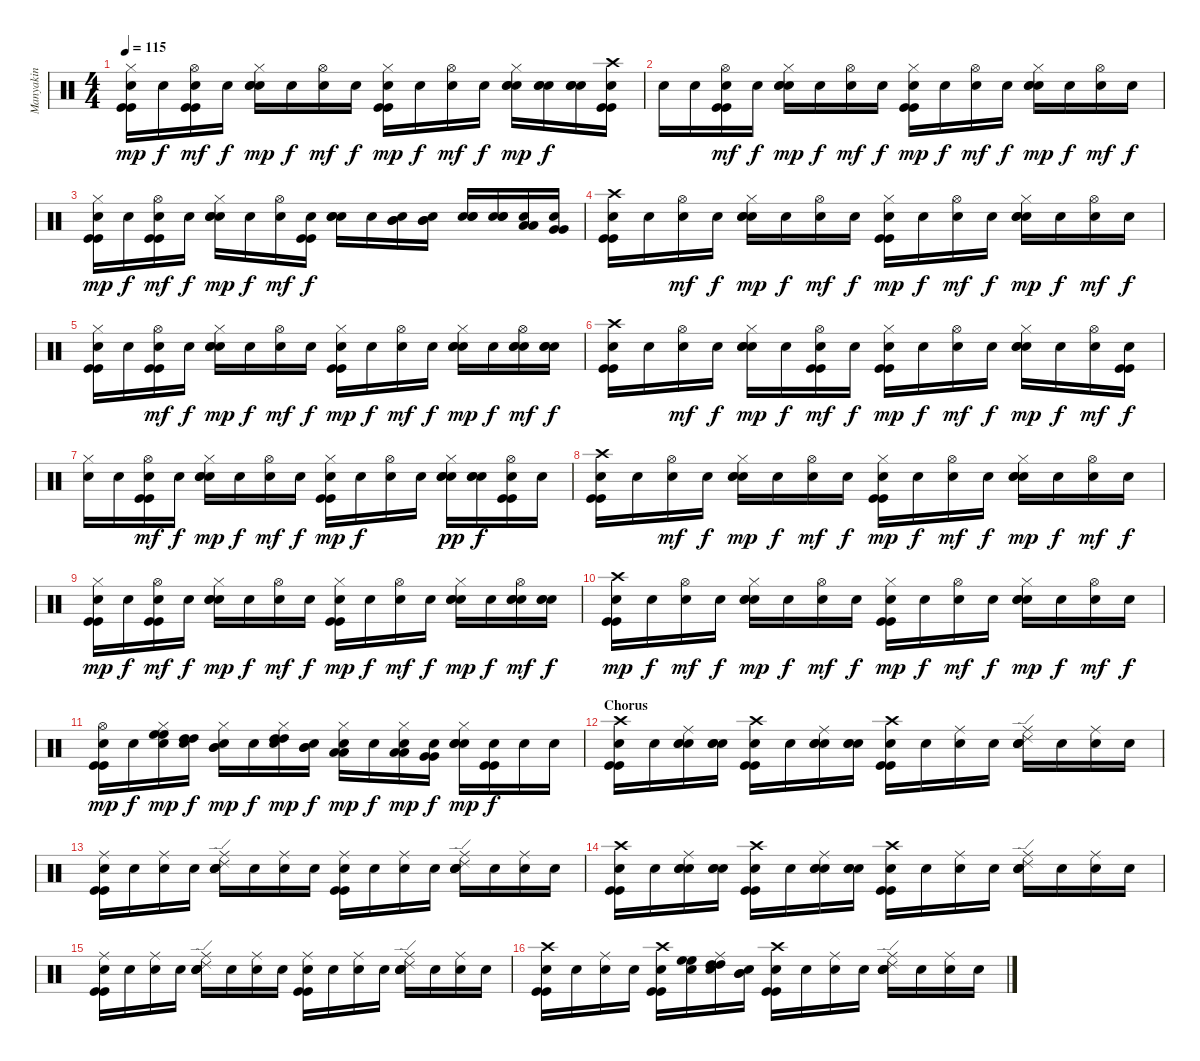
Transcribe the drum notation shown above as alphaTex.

\track ("Manyakin" "Manyakin") {instrument percussion}
\staff {score}
\articulation defaults
\ts (4 4)
\tempo 115
\clef neutral
\ks c
("Hi-Hat (closed)" "Kick (hit)" "Kick (hit)" "Snare (hit)"{x}).16{dy mp} "Snare (hit)"{x}.16{dy f} ("Hi-Hat (open)" "Kick (hit)" "Kick (hit)" "Snare (hit)"{x}).16{dy mf} "Snare (hit)"{x}.16{dy f} ("Hi-Hat (closed)" "Electric Snare (hit)" "Electric Snare (hit)" "Snare (hit)"{x}).16{dy mp} "Snare (hit)"{x}.16{dy f} ("Hi-Hat (open)" "Snare (hit)"{x}).16{dy mf} "Snare (hit)"{x}.16{dy f} ("Hi-Hat (closed)" "Kick (hit)" "Kick (hit)" "Snare (hit)"{x}).16{dy mp} "Snare (hit)"{x}.16{dy f} ("Hi-Hat (open)" "Snare (hit)"{x}).16{dy mf} "Snare (hit)"{x}.16{dy f} ("Hi-Hat (closed)" "Electric Snare (hit)" "Electric Snare (hit)" "Snare (hit)"{x}).16{dy mp} ("Electric Snare (hit)" "Electric Snare (hit)" "Snare (hit)"{x}).16{dy f} ("Electric Snare (hit)" "Electric Snare (hit)" "Snare (hit)"{x}).16 ("Crash high (hit)" "Kick (hit)" "Kick (hit)" "Snare (hit)"{x}).16 |
"Snare (hit)"{x}.16 "Snare (hit)"{x}.16 ("Hi-Hat (open)" "Kick (hit)" "Kick (hit)" "Snare (hit)"{x}).16{dy mf} "Snare (hit)"{x}.16{dy f} ("Hi-Hat (closed)" "Electric Snare (hit)" "Electric Snare (hit)" "Snare (hit)"{x}).16{dy mp} "Snare (hit)"{x}.16{dy f} ("Hi-Hat (open)" "Snare (hit)"{x}).16{dy mf} "Snare (hit)"{x}.16{dy f} ("Hi-Hat (closed)" "Kick (hit)" "Kick (hit)" "Snare (hit)"{x}).16{dy mp} "Snare (hit)"{x}.16{dy f} ("Hi-Hat (open)" "Snare (hit)"{x}).16{dy mf} "Snare (hit)"{x}.16{dy f} ("Hi-Hat (closed)" "Electric Snare (hit)" "Electric Snare (hit)" "Snare (hit)"{x}).16{dy mp} "Snare (hit)"{x}.16{dy f} ("Hi-Hat (open)" "Snare (hit)"{x}).16{dy mf} "Snare (hit)"{x}.16{dy f} |
("Hi-Hat (closed)" "Kick (hit)" "Kick (hit)" "Snare (hit)"{x}).16{dy mp} "Snare (hit)"{x}.16{dy f} ("Hi-Hat (open)" "Kick (hit)" "Kick (hit)" "Snare (hit)"{x}).16{dy mf} "Snare (hit)"{x}.16{dy f} ("Hi-Hat (closed)" "Electric Snare (hit)" "Electric Snare (hit)" "Snare (hit)"{x}).16{dy mp} "Snare (hit)"{x}.16{dy f} ("Hi-Hat (open)" "Snare (hit)"{x}).16{dy mf} ("Kick (hit)" "Kick (hit)" "Snare (hit)"{x}).16{dy f} ("Electric Snare (hit)" "Electric Snare (hit)" "Snare (hit)"{x}).16 "Snare (hit)"{x}.16 ("Mid Tom (hit)" "Mid Tom (hit)" "Snare (hit)"{x}).16 ("Mid Tom (hit)" "Mid Tom (hit)" "Snare (hit)"{x}).16 ("Electric Snare (hit)" "Electric Snare (hit)" "Snare (hit)"{x}).16 ("Electric Snare (hit)" "Electric Snare (hit)" "Snare (hit)"{x}).16 ("Low Tom (hit)" "Low Tom (hit)" "Snare (hit)"{x}).16 ("Very Low Tom (hit)" "Very Low Tom (hit)" "Snare (hit)"{x}).16 |
("Crash high (hit)" "Kick (hit)" "Kick (hit)" "Snare (hit)"{x}).16 "Snare (hit)"{x}.16 ("Hi-Hat (open)" "Snare (hit)"{x}).16{dy mf} "Snare (hit)"{x}.16{dy f} ("Hi-Hat (closed)" "Electric Snare (hit)" "Electric Snare (hit)" "Snare (hit)"{x}).16{dy mp} "Snare (hit)"{x}.16{dy f} ("Hi-Hat (open)" "Snare (hit)"{x}).16{dy mf} "Snare (hit)"{x}.16{dy f} ("Hi-Hat (closed)" "Kick (hit)" "Kick (hit)" "Snare (hit)"{x}).16{dy mp} "Snare (hit)"{x}.16{dy f} ("Hi-Hat (open)" "Snare (hit)"{x}).16{dy mf} "Snare (hit)"{x}.16{dy f} ("Hi-Hat (closed)" "Electric Snare (hit)" "Electric Snare (hit)" "Snare (hit)"{x}).16{dy mp} "Snare (hit)"{x}.16{dy f} ("Hi-Hat (open)" "Snare (hit)"{x}).16{dy mf} "Snare (hit)"{x}.16{dy f} |
("Hi-Hat (closed)" "Kick (hit)" "Kick (hit)" "Snare (hit)"{x}).16 "Snare (hit)"{x}.16 ("Hi-Hat (open)" "Kick (hit)" "Kick (hit)" "Snare (hit)"{x}).16{dy mf} "Snare (hit)"{x}.16{dy f} ("Hi-Hat (closed)" "Electric Snare (hit)" "Electric Snare (hit)" "Snare (hit)"{x}).16{dy mp} "Snare (hit)"{x}.16{dy f} ("Hi-Hat (open)" "Snare (hit)"{x}).16{dy mf} "Snare (hit)"{x}.16{dy f} ("Hi-Hat (closed)" "Kick (hit)" "Kick (hit)" "Snare (hit)"{x}).16{dy mp} "Snare (hit)"{x}.16{dy f} ("Hi-Hat (open)" "Snare (hit)"{x}).16{dy mf} "Snare (hit)"{x}.16{dy f} ("Hi-Hat (closed)" "Electric Snare (hit)" "Electric Snare (hit)" "Snare (hit)"{x}).16{dy mp} "Snare (hit)"{x}.16{dy f} ("Hi-Hat (open)" "Electric Snare (hit)" "Electric Snare (hit)" "Snare (hit)"{x}).16{dy mf} ("Electric Snare (hit)" "Electric Snare (hit)" "Snare (hit)"{x}).16{dy f} |
("Crash high (hit)" "Kick (hit)" "Kick (hit)" "Snare (hit)"{x}).16 "Snare (hit)"{x}.16 ("Hi-Hat (open)" "Snare (hit)"{x}).16{dy mf} "Snare (hit)"{x}.16{dy f} ("Hi-Hat (closed)" "Electric Snare (hit)" "Electric Snare (hit)" "Snare (hit)"{x}).16{dy mp} "Snare (hit)"{x}.16{dy f} ("Hi-Hat (open)" "Kick (hit)" "Kick (hit)" "Snare (hit)"{x}).16{dy mf} "Snare (hit)"{x}.16{dy f} ("Hi-Hat (closed)" "Kick (hit)" "Kick (hit)" "Snare (hit)"{x}).16{dy mp} "Snare (hit)"{x}.16{dy f} ("Hi-Hat (open)" "Snare (hit)"{x}).16{dy mf} "Snare (hit)"{x}.16{dy f} ("Hi-Hat (closed)" "Electric Snare (hit)" "Electric Snare (hit)" "Snare (hit)"{x}).16{dy mp} "Snare (hit)"{x}.16{dy f} ("Hi-Hat (open)" "Snare (hit)"{x}).16{dy mf} ("Kick (hit)" "Kick (hit)" "Snare (hit)"{x}).16{dy f} |
("Hi-Hat (closed)" "Snare (hit)"{x}).16 "Snare (hit)"{x}.16 ("Hi-Hat (open)" "Kick (hit)" "Kick (hit)" "Snare (hit)"{x}).16{dy mf} "Snare (hit)"{x}.16{dy f} ("Hi-Hat (closed)" "Electric Snare (hit)" "Electric Snare (hit)" "Snare (hit)"{x}).16{dy mp} "Snare (hit)"{x}.16{dy f} ("Hi-Hat (open)" "Snare (hit)"{x}).16{dy mf} "Snare (hit)"{x}.16{dy f} ("Hi-Hat (closed)" "Kick (hit)" "Kick (hit)" "Snare (hit)"{x}).16{dy mp} "Snare (hit)"{x}.16{dy f} ("Hi-Hat (open)" "Snare (hit)"{x}).16 "Snare (hit)"{x}.16 ("Hi-Hat (closed)" "Electric Snare (hit)" "Electric Snare (hit)" "Snare (hit)"{x}).16{dy pp} ("Electric Snare (hit)" "Electric Snare (hit)" "Snare (hit)"{x}).16{dy f} ("Hi-Hat (open)" "Kick (hit)" "Kick (hit)" "Snare (hit)"{x}).16 "Snare (hit)"{x}.16 |
("Crash high (hit)" "Kick (hit)" "Kick (hit)" "Snare (hit)"{x}).16 "Snare (hit)"{x}.16 ("Hi-Hat (open)" "Snare (hit)"{x}).16{dy mf} "Snare (hit)"{x}.16{dy f} ("Hi-Hat (closed)" "Electric Snare (hit)" "Electric Snare (hit)" "Snare (hit)"{x}).16{dy mp} "Snare (hit)"{x}.16{dy f} ("Hi-Hat (open)" "Snare (hit)"{x}).16{dy mf} "Snare (hit)"{x}.16{dy f} ("Hi-Hat (closed)" "Kick (hit)" "Kick (hit)" "Snare (hit)"{x}).16{dy mp} "Snare (hit)"{x}.16{dy f} ("Hi-Hat (open)" "Snare (hit)"{x}).16{dy mf} "Snare (hit)"{x}.16{dy f} ("Hi-Hat (closed)" "Electric Snare (hit)" "Electric Snare (hit)" "Snare (hit)"{x}).16{dy mp} "Snare (hit)"{x}.16{dy f} ("Hi-Hat (open)" "Snare (hit)"{x}).16{dy mf} "Snare (hit)"{x}.16{dy f} |
("Hi-Hat (closed)" "Kick (hit)" "Kick (hit)" "Snare (hit)"{x}).16{dy mp} "Snare (hit)"{x}.16{dy f} ("Hi-Hat (open)" "Kick (hit)" "Kick (hit)" "Snare (hit)"{x}).16{dy mf} "Snare (hit)"{x}.16{dy f} ("Hi-Hat (closed)" "Electric Snare (hit)" "Electric Snare (hit)" "Snare (hit)"{x}).16{dy mp} "Snare (hit)"{x}.16{dy f} ("Hi-Hat (open)" "Snare (hit)"{x}).16{dy mf} "Snare (hit)"{x}.16{dy f} ("Hi-Hat (closed)" "Kick (hit)" "Kick (hit)" "Snare (hit)"{x}).16{dy mp} "Snare (hit)"{x}.16{dy f} ("Hi-Hat (open)" "Snare (hit)"{x}).16{dy mf} "Snare (hit)"{x}.16{dy f} ("Hi-Hat (closed)" "Electric Snare (hit)" "Electric Snare (hit)" "Snare (hit)"{x}).16{dy mp} "Snare (hit)"{x}.16{dy f} ("Hi-Hat (open)" "Electric Snare (hit)" "Electric Snare (hit)" "Snare (hit)"{x}).16{dy mf} ("Electric Snare (hit)" "Electric Snare (hit)" "Snare (hit)"{x}).16{dy f} |
("Crash high (hit)" "Kick (hit)" "Kick (hit)" "Snare (hit)"{x}).16{dy mp} "Snare (hit)"{x}.16{dy f} ("Hi-Hat (open)" "Snare (hit)"{x}).16{dy mf} "Snare (hit)"{x}.16{dy f} ("Hi-Hat (closed)" "Electric Snare (hit)" "Electric Snare (hit)" "Snare (hit)"{x}).16{dy mp} "Snare (hit)"{x}.16{dy f} ("Hi-Hat (open)" "Snare (hit)"{x}).16{dy mf} "Snare (hit)"{x}.16{dy f} ("Hi-Hat (closed)" "Kick (hit)" "Kick (hit)" "Snare (hit)"{x}).16{dy mp} "Snare (hit)"{x}.16{dy f} ("Hi-Hat (open)" "Snare (hit)"{x}).16{dy mf} "Snare (hit)"{x}.16{dy f} ("Hi-Hat (closed)" "Electric Snare (hit)" "Electric Snare (hit)" "Snare (hit)"{x}).16{dy mp} "Snare (hit)"{x}.16{dy f} ("Hi-Hat (open)" "Snare (hit)"{x}).16{dy mf} "Snare (hit)"{x}.16{dy f} |
("Hi-Hat (open)" "Kick (hit)" "Kick (hit)" "Snare (hit)"{x}).16{dy mp} "Snare (hit)"{x}.16{dy f} ("Hi-Hat (closed)" "High Floor Tom (hit)" "High Floor Tom (hit)" "Snare (hit)"{x}).16{dy mp} ("High Tom (hit)" "High Tom (hit)" "Snare (hit)"{x}).16{dy f} ("Hi-Hat (closed)" "Mid Tom (hit)" "Mid Tom (hit)" "Snare (hit)"{x}).16{dy mp} "Snare (hit)"{x}.16{dy f} ("Hi-Hat (closed)" "High Tom (hit)" "High Tom (hit)" "Snare (hit)"{x}).16{dy mp} ("Mid Tom (hit)" "Mid Tom (hit)" "Snare (hit)"{x}).16{dy f} ("Hi-Hat (closed)" "Low Tom (hit)" "Low Tom (hit)" "Snare (hit)"{x}).16{dy mp} "Snare (hit)"{x}.16{dy f} ("Hi-Hat (closed)" "Low Tom (hit)" "Low Tom (hit)" "Snare (hit)"{x}).16{dy mp} ("Very Low Tom (hit)" "Very Low Tom (hit)" "Snare (hit)"{x}).16{dy f} ("Hi-Hat (closed)" "Electric Snare (hit)" "Electric Snare (hit)" "Snare (hit)"{x}).16{dy mp} ("Kick (hit)" "Kick (hit)" "Snare (hit)"{x}).16{dy f} "Snare (hit)"{x}.16 "Snare (hit)"{x}.16 |
\section ("" "Chorus")
("Crash high (hit)" "Kick (hit)" "Kick (hit)" "Snare (hit)"{x}).16 "Snare (hit)"{x}.16 ("Ride (middle)" "Electric Snare (hit)" "Electric Snare (hit)" "Snare (hit)"{x}).16 ("Electric Snare (hit)" "Electric Snare (hit)" "Snare (hit)"{x}).16 ("Crash high (hit)" "Kick (hit)" "Kick (hit)" "Snare (hit)"{x}).16 "Snare (hit)"{x}.16 ("Ride (middle)" "Electric Snare (hit)" "Electric Snare (hit)" "Snare (hit)"{x}).16 ("Electric Snare (hit)" "Electric Snare (hit)" "Snare (hit)"{x}).16 ("Crash high (hit)" "Kick (hit)" "Kick (hit)" "Snare (hit)"{x}).16 "Snare (hit)"{x}.16 ("Ride (middle)" "Snare (hit)"{x}).16 "Snare (hit)"{x}.16 ("Ride (middle)" "Ride (edge) 2" "Electric Snare (hit)" "Electric Snare (hit)" "Snare (hit)"{x}).16 "Snare (hit)"{x}.16 ("Ride (middle)" "Snare (hit)"{x}).16 "Snare (hit)"{x}.16 |
("Ride (middle)" "Kick (hit)" "Kick (hit)" "Snare (hit)"{x}).16 "Snare (hit)"{x}.16 ("Ride (middle)" "Snare (hit)"{x}).16 "Snare (hit)"{x}.16 ("Ride (middle)" "Ride (edge) 2" "Electric Snare (hit)" "Electric Snare (hit)" "Snare (hit)"{x}).16 "Snare (hit)"{x}.16 ("Ride (middle)" "Snare (hit)"{x}).16 "Snare (hit)"{x}.16 ("Ride (middle)" "Kick (hit)" "Kick (hit)" "Snare (hit)"{x}).16 "Snare (hit)"{x}.16 ("Ride (middle)" "Snare (hit)"{x}).16 "Snare (hit)"{x}.16 ("Ride (middle)" "Ride (edge) 2" "Electric Snare (hit)" "Electric Snare (hit)" "Snare (hit)"{x}).16 "Snare (hit)"{x}.16 ("Ride (middle)" "Snare (hit)"{x}).16 "Snare (hit)"{x}.16 |
("Crash high (hit)" "Kick (hit)" "Kick (hit)" "Snare (hit)"{x}).16 "Snare (hit)"{x}.16 ("Ride (middle)" "Electric Snare (hit)" "Electric Snare (hit)" "Snare (hit)"{x}).16 ("Electric Snare (hit)" "Electric Snare (hit)" "Snare (hit)"{x}).16 ("Crash high (hit)" "Kick (hit)" "Kick (hit)" "Snare (hit)"{x}).16 "Snare (hit)"{x}.16 ("Ride (middle)" "Electric Snare (hit)" "Electric Snare (hit)" "Snare (hit)"{x}).16 ("Electric Snare (hit)" "Electric Snare (hit)" "Snare (hit)"{x}).16 ("Crash high (hit)" "Kick (hit)" "Kick (hit)" "Snare (hit)"{x}).16 "Snare (hit)"{x}.16 ("Ride (middle)" "Snare (hit)"{x}).16 "Snare (hit)"{x}.16 ("Ride (middle)" "Ride (edge) 2" "Electric Snare (hit)" "Electric Snare (hit)" "Snare (hit)"{x}).16 "Snare (hit)"{x}.16 ("Ride (middle)" "Snare (hit)"{x}).16 "Snare (hit)"{x}.16 |
("Ride (middle)" "Kick (hit)" "Kick (hit)" "Snare (hit)"{x}).16 "Snare (hit)"{x}.16 ("Ride (middle)" "Snare (hit)"{x}).16 "Snare (hit)"{x}.16 ("Ride (middle)" "Ride (edge) 2" "Electric Snare (hit)" "Electric Snare (hit)" "Snare (hit)"{x}).16 "Snare (hit)"{x}.16 ("Ride (middle)" "Snare (hit)"{x}).16 "Snare (hit)"{x}.16 ("Ride (middle)" "Kick (hit)" "Kick (hit)" "Snare (hit)"{x}).16 "Snare (hit)"{x}.16 ("Ride (middle)" "Snare (hit)"{x}).16 "Snare (hit)"{x}.16 ("Ride (middle)" "Ride (edge) 2" "Electric Snare (hit)" "Electric Snare (hit)" "Snare (hit)"{x}).16 "Snare (hit)"{x}.16 ("Ride (middle)" "Snare (hit)"{x}).16 "Snare (hit)"{x}.16 |
("Crash high (hit)" "Kick (hit)" "Kick (hit)" "Snare (hit)"{x}).16 "Snare (hit)"{x}.16 ("Ride (middle)" "Snare (hit)"{x}).16 "Snare (hit)"{x}.16 ("Crash high (hit)" "Kick (hit)" "Kick (hit)" "Snare (hit)"{x}).16 ("High Floor Tom (hit)" "High Floor Tom (hit)" "Snare (hit)"{x}).16 ("Ride (middle)" "High Tom (hit)" "High Tom (hit)" "Snare (hit)"{x}).16 ("Mid Tom (hit)" "Mid Tom (hit)" "Snare (hit)"{x}).16 ("Crash high (hit)" "Kick (hit)" "Kick (hit)" "Snare (hit)"{x}).16 "Snare (hit)"{x}.16 ("Ride (middle)" "Snare (hit)"{x}).16 "Snare (hit)"{x}.16 ("Ride (middle)" "Ride (edge) 2" "Electric Snare (hit)" "Electric Snare (hit)" "Snare (hit)"{x}).16 "Snare (hit)"{x}.16 ("Ride (middle)" "Snare (hit)"{x}).16 "Snare (hit)"{x}.16
